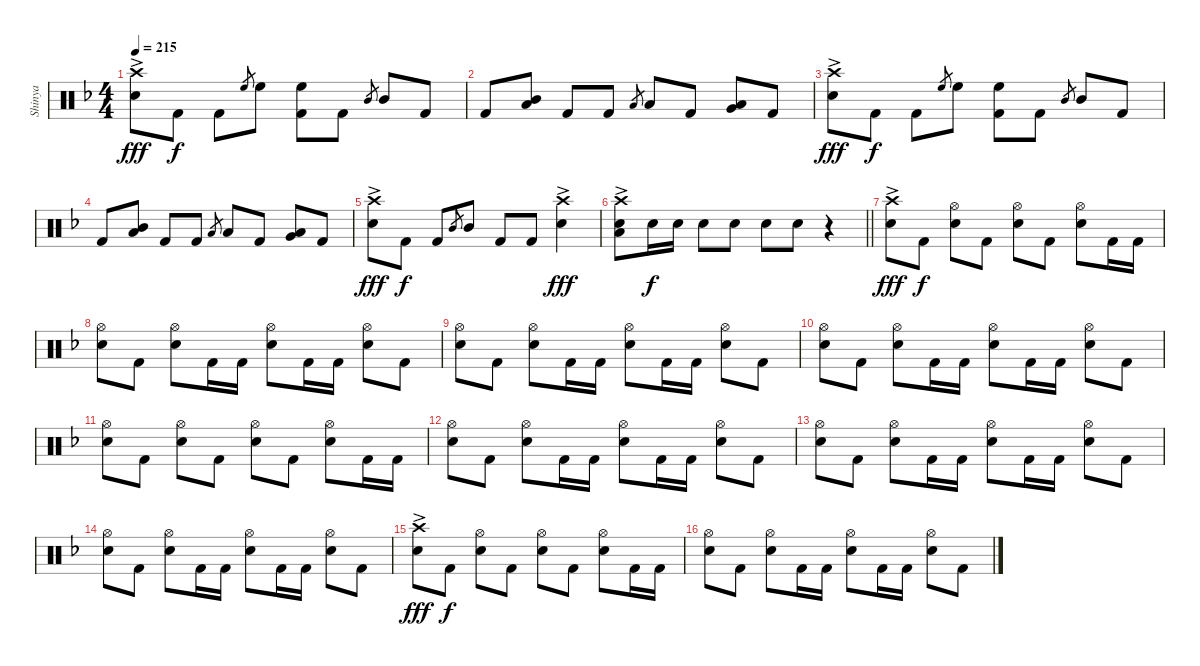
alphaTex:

\track ("Shinya" "Shinya") {instrument percussion}
\staff {score}
\articulation defaults
\ts (4 4)
\tempo 215
\clef neutral
\ks f
("Crash high (hit)"{ac} "Snare (hit) 2").8{dy fff} "Kick (hit) 2".8{dy f} "Kick (hit) 2".8 "High Floor Tom (hit)".8{gr} "High Floor Tom (hit)".8 ("High Floor Tom (hit)" "Kick (hit) 2").8 "Kick (hit) 2".8 "Mid Tom (hit)".8{gr} "Mid Tom (hit)".8 "Kick (hit) 2".8 |
"Kick (hit) 2".8 ("Mid Tom (hit)" "Low Tom (hit)").8 "Kick (hit) 2".8 "Kick (hit) 2".8 "Low Tom (hit)".8{gr} "Low Tom (hit)".8 "Kick (hit) 2".8 ("Low Tom (hit)" "Very Low Tom (hit)").8 "Kick (hit) 2".8 |
("Crash high (hit)"{ac} "Snare (hit) 2").8{dy fff} "Kick (hit) 2".8{dy f} "Kick (hit) 2".8 "High Floor Tom (hit)".8{gr} "High Floor Tom (hit)".8 ("High Floor Tom (hit)" "Kick (hit) 2").8 "Kick (hit) 2".8 "Mid Tom (hit)".8{gr} "Mid Tom (hit)".8 "Kick (hit) 2".8 |
"Kick (hit) 2".8 ("Mid Tom (hit)" "Low Tom (hit)").8 "Kick (hit) 2".8 "Kick (hit) 2".8 "Low Tom (hit)".8{gr} "Low Tom (hit)".8 "Kick (hit) 2".8 ("Low Tom (hit)" "Very Low Tom (hit)").8 "Kick (hit) 2".8 |
("Crash high (hit)"{ac} "Snare (hit) 2").8{dy fff} "Kick (hit) 2".8{dy f} "Kick (hit) 2".8 "Mid Tom (hit)".8{gr} "Mid Tom (hit)".8 "Kick (hit) 2".8 "Kick (hit) 2".8 ("Crash high (hit)"{ac} "Snare (hit) 2").4{dy fff} |
\barLineRight lightlight
("Crash high (hit)"{ac} "Snare (hit) 2" "Low Floor Tom (hit)").8 "Snare (hit) 2".16{dy f} "Snare (hit) 2".16 "Snare (hit) 2".8 "Snare (hit) 2".8 "Snare (hit) 2".8 "Snare (hit) 2".8 r.4 |
("Crash high (hit)"{ac} "Snare (hit) 2").8{dy fff} "Kick (hit) 2".8{dy f} ("Hi-Hat (open)" "Snare (hit) 2").8 "Kick (hit) 2".8 ("Hi-Hat (open)" "Snare (hit) 2").8 "Kick (hit) 2".8 ("Hi-Hat (open)" "Snare (hit) 2").8 "Kick (hit) 2".16 "Kick (hit) 2".16 |
("Hi-Hat (open)" "Snare (hit) 2").8 "Kick (hit) 2".8 ("Hi-Hat (open)" "Snare (hit) 2").8 "Kick (hit) 2".16 "Kick (hit) 2".16 ("Hi-Hat (open)" "Snare (hit) 2").8 "Kick (hit) 2".16 "Kick (hit) 2".16 ("Hi-Hat (open)" "Snare (hit) 2").8 "Kick (hit) 2".8 |
("Hi-Hat (open)" "Snare (hit) 2").8 "Kick (hit) 2".8 ("Hi-Hat (open)" "Snare (hit) 2").8 "Kick (hit) 2".16 "Kick (hit) 2".16 ("Hi-Hat (open)" "Snare (hit) 2").8 "Kick (hit) 2".16 "Kick (hit) 2".16 ("Hi-Hat (open)" "Snare (hit) 2").8 "Kick (hit) 2".8 |
("Hi-Hat (open)" "Snare (hit) 2").8 "Kick (hit) 2".8 ("Hi-Hat (open)" "Snare (hit) 2").8 "Kick (hit) 2".16 "Kick (hit) 2".16 ("Hi-Hat (open)" "Snare (hit) 2").8 "Kick (hit) 2".16 "Kick (hit) 2".16 ("Hi-Hat (open)" "Snare (hit) 2").8 "Kick (hit) 2".8 |
("Hi-Hat (open)" "Snare (hit) 2").8 "Kick (hit) 2".8 ("Hi-Hat (open)" "Snare (hit) 2").8 "Kick (hit) 2".8 ("Hi-Hat (open)" "Snare (hit) 2").8 "Kick (hit) 2".8 ("Hi-Hat (open)" "Snare (hit) 2").8 "Kick (hit) 2".16 "Kick (hit) 2".16 |
("Hi-Hat (open)" "Snare (hit) 2").8 "Kick (hit) 2".8 ("Hi-Hat (open)" "Snare (hit) 2").8 "Kick (hit) 2".16 "Kick (hit) 2".16 ("Hi-Hat (open)" "Snare (hit) 2").8 "Kick (hit) 2".16 "Kick (hit) 2".16 ("Hi-Hat (open)" "Snare (hit) 2").8 "Kick (hit) 2".8 |
("Hi-Hat (open)" "Snare (hit) 2").8 "Kick (hit) 2".8 ("Hi-Hat (open)" "Snare (hit) 2").8 "Kick (hit) 2".16 "Kick (hit) 2".16 ("Hi-Hat (open)" "Snare (hit) 2").8 "Kick (hit) 2".16 "Kick (hit) 2".16 ("Hi-Hat (open)" "Snare (hit) 2").8 "Kick (hit) 2".8 |
("Hi-Hat (open)" "Snare (hit) 2").8 "Kick (hit) 2".8 ("Hi-Hat (open)" "Snare (hit) 2").8 "Kick (hit) 2".16 "Kick (hit) 2".16 ("Hi-Hat (open)" "Snare (hit) 2").8 "Kick (hit) 2".16 "Kick (hit) 2".16 ("Hi-Hat (open)" "Snare (hit) 2").8 "Kick (hit) 2".8 |
("Crash high (hit)"{ac} "Snare (hit) 2").8{dy fff} "Kick (hit) 2".8{dy f} ("Hi-Hat (open)" "Snare (hit) 2").8 "Kick (hit) 2".8 ("Hi-Hat (open)" "Snare (hit) 2").8 "Kick (hit) 2".8 ("Hi-Hat (open)" "Snare (hit) 2").8 "Kick (hit) 2".16 "Kick (hit) 2".16 |
("Hi-Hat (open)" "Snare (hit) 2").8 "Kick (hit) 2".8 ("Hi-Hat (open)" "Snare (hit) 2").8 "Kick (hit) 2".16 "Kick (hit) 2".16 ("Hi-Hat (open)" "Snare (hit) 2").8 "Kick (hit) 2".16 "Kick (hit) 2".16 ("Hi-Hat (open)" "Snare (hit) 2").8 "Kick (hit) 2".8
